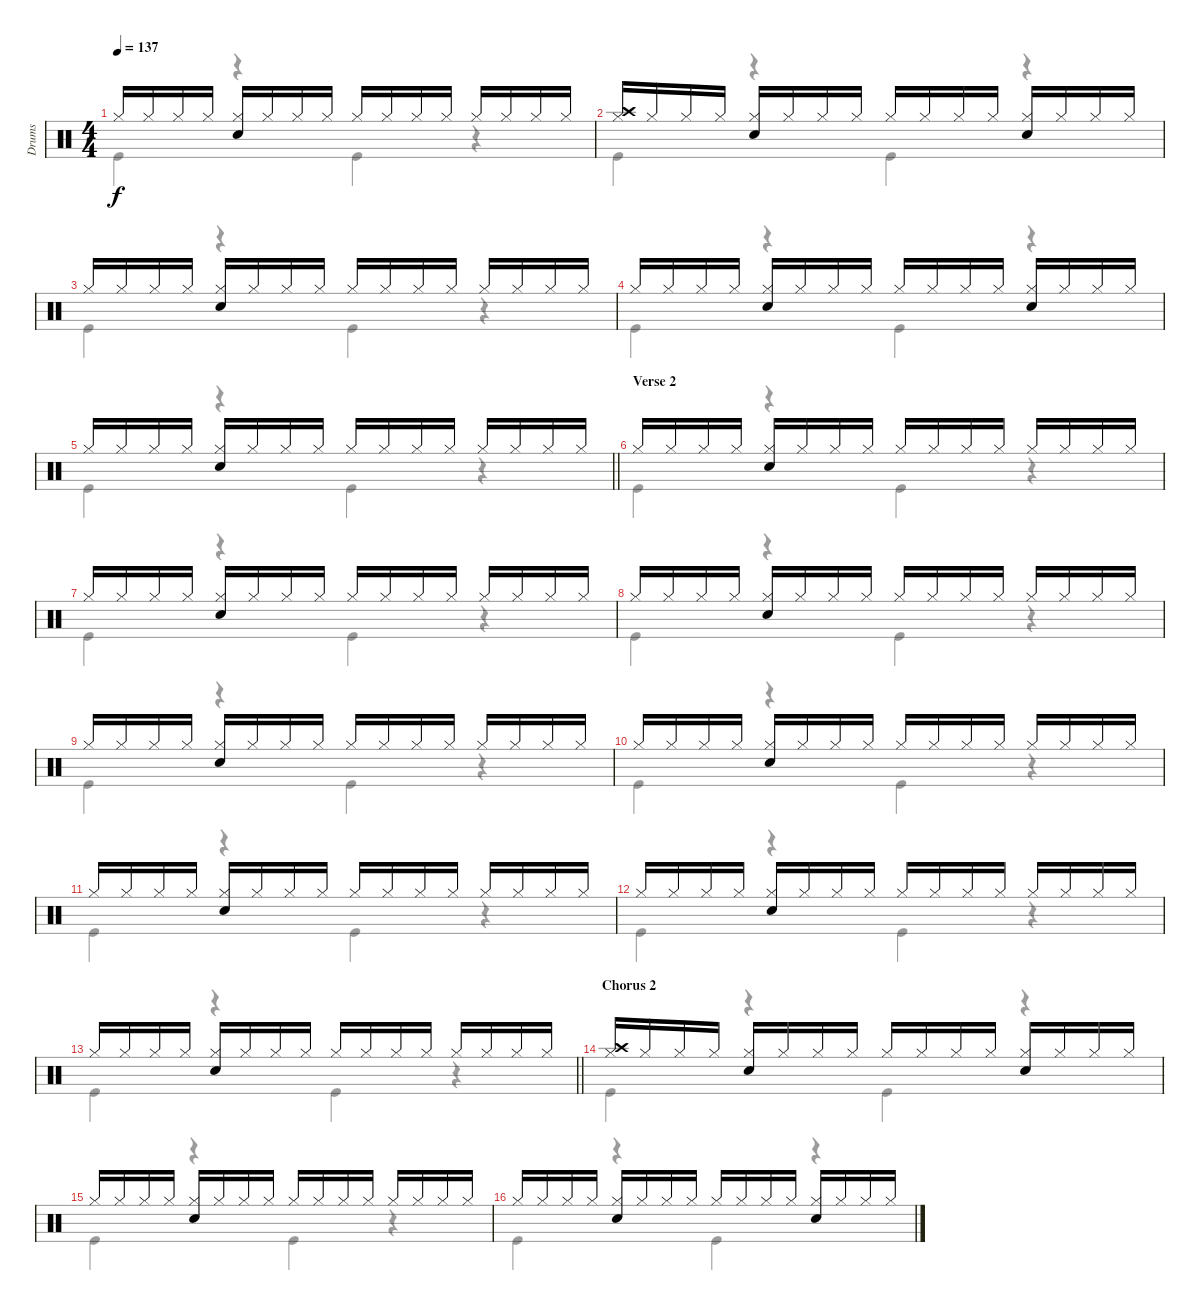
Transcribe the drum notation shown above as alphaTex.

\track ("Drums" "Drums") {instrument percussion}
\staff {score}
\articulation defaults
\voice
\ts (4 4)
\tempo 137
\clef neutral
\ks c "Hi-Hat (closed)".16{dy f} "Hi-Hat (closed)".16 "Hi-Hat (closed)".16 "Hi-Hat (closed)".16
("Hi-Hat (closed)" "Snare (hit) 2").16 "Hi-Hat (closed)".16 "Hi-Hat (closed)".16 "Hi-Hat (closed)".16 "Hi-Hat (closed)".16 "Hi-Hat (closed)".16 "Hi-Hat (closed)".16 "Hi-Hat (closed)".16 "Hi-Hat (closed)".16 "Hi-Hat (closed)".16 "Hi-Hat (closed)".16 "Hi-Hat (closed)".16 |
("Hi-Hat (closed)" "Crash high (hit)").16 "Hi-Hat (closed)".16 "Hi-Hat (closed)".16 "Hi-Hat (closed)".16 ("Hi-Hat (closed)" "Snare (hit) 2").16 "Hi-Hat (closed)".16 "Hi-Hat (closed)".16 "Hi-Hat (closed)".16 "Hi-Hat (closed)".16 "Hi-Hat (closed)".16 "Hi-Hat (closed)".16 "Hi-Hat (closed)".16 ("Hi-Hat (closed)" "Hand Clap (hit)").16 "Hi-Hat (closed)".16 "Hi-Hat (closed)".16 "Hi-Hat (closed)".16 |
"Hi-Hat (closed)".16 "Hi-Hat (closed)".16 "Hi-Hat (closed)".16 "Hi-Hat (closed)".16 ("Hi-Hat (closed)" "Snare (hit) 2").16 "Hi-Hat (closed)".16 "Hi-Hat (closed)".16 "Hi-Hat (closed)".16 "Hi-Hat (closed)".16 "Hi-Hat (closed)".16 "Hi-Hat (closed)".16 "Hi-Hat (closed)".16 "Hi-Hat (closed)".16 "Hi-Hat (closed)".16 "Hi-Hat (closed)".16 "Hi-Hat (closed)".16 |
"Hi-Hat (closed)".16 "Hi-Hat (closed)".16 "Hi-Hat (closed)".16 "Hi-Hat (closed)".16 ("Hi-Hat (closed)" "Snare (hit) 2").16 "Hi-Hat (closed)".16 "Hi-Hat (closed)".16 "Hi-Hat (closed)".16 "Hi-Hat (closed)".16 "Hi-Hat (closed)".16 "Hi-Hat (closed)".16 "Hi-Hat (closed)".16 ("Hi-Hat (closed)" "Hand Clap (hit)").16 "Hi-Hat (closed)".16 "Hi-Hat (closed)".16 "Hi-Hat (closed)".16 |
\barLineRight lightlight "Hi-Hat (closed)".16 "Hi-Hat (closed)".16 "Hi-Hat (closed)".16 "Hi-Hat (closed)".16
("Hi-Hat (closed)" "Snare (hit) 2").16 "Hi-Hat (closed)".16 "Hi-Hat (closed)".16 "Hi-Hat (closed)".16 "Hi-Hat (closed)".16 "Hi-Hat (closed)".16 "Hi-Hat (closed)".16 "Hi-Hat (closed)".16 "Hi-Hat (closed)".16 "Hi-Hat (closed)".16 "Hi-Hat (closed)".16 "Hi-Hat (closed)".16 |
\section ("" "Verse 2")
"Hi-Hat (closed)".16 "Hi-Hat (closed)".16 "Hi-Hat (closed)".16 "Hi-Hat (closed)".16 ("Hi-Hat (closed)" "Snare (hit) 2").16 "Hi-Hat (closed)".16 "Hi-Hat (closed)".16 "Hi-Hat (closed)".16 "Hi-Hat (closed)".16 "Hi-Hat (closed)".16 "Hi-Hat (closed)".16 "Hi-Hat (closed)".16 "Hi-Hat (closed)".16 "Hi-Hat (closed)".16 "Hi-Hat (closed)".16 "Hi-Hat (closed)".16 |
"Hi-Hat (closed)".16 "Hi-Hat (closed)".16 "Hi-Hat (closed)".16 "Hi-Hat (closed)".16 ("Hi-Hat (closed)" "Snare (hit) 2").16 "Hi-Hat (closed)".16 "Hi-Hat (closed)".16 "Hi-Hat (closed)".16 "Hi-Hat (closed)".16 "Hi-Hat (closed)".16 "Hi-Hat (closed)".16 "Hi-Hat (closed)".16 "Hi-Hat (closed)".16 "Hi-Hat (closed)".16 "Hi-Hat (closed)".16 "Hi-Hat (closed)".16 |
"Hi-Hat (closed)".16 "Hi-Hat (closed)".16 "Hi-Hat (closed)".16 "Hi-Hat (closed)".16 ("Hi-Hat (closed)" "Snare (hit) 2").16 "Hi-Hat (closed)".16 "Hi-Hat (closed)".16 "Hi-Hat (closed)".16 "Hi-Hat (closed)".16 "Hi-Hat (closed)".16 "Hi-Hat (closed)".16 "Hi-Hat (closed)".16 "Hi-Hat (closed)".16 "Hi-Hat (closed)".16 "Hi-Hat (closed)".16 "Hi-Hat (closed)".16 |
"Hi-Hat (closed)".16 "Hi-Hat (closed)".16 "Hi-Hat (closed)".16 "Hi-Hat (closed)".16 ("Hi-Hat (closed)" "Snare (hit) 2").16 "Hi-Hat (closed)".16 "Hi-Hat (closed)".16 "Hi-Hat (closed)".16 "Hi-Hat (closed)".16 "Hi-Hat (closed)".16 "Hi-Hat (closed)".16 "Hi-Hat (closed)".16 "Hi-Hat (closed)".16 "Hi-Hat (closed)".16 "Hi-Hat (closed)".16 "Hi-Hat (closed)".16 |
"Hi-Hat (closed)".16 "Hi-Hat (closed)".16 "Hi-Hat (closed)".16 "Hi-Hat (closed)".16 ("Hi-Hat (closed)" "Snare (hit) 2").16 "Hi-Hat (closed)".16 "Hi-Hat (closed)".16 "Hi-Hat (closed)".16 "Hi-Hat (closed)".16 "Hi-Hat (closed)".16 "Hi-Hat (closed)".16 "Hi-Hat (closed)".16 "Hi-Hat (closed)".16 "Hi-Hat (closed)".16 "Hi-Hat (closed)".16 "Hi-Hat (closed)".16 |
"Hi-Hat (closed)".16 "Hi-Hat (closed)".16 "Hi-Hat (closed)".16 "Hi-Hat (closed)".16 ("Hi-Hat (closed)" "Snare (hit) 2").16 "Hi-Hat (closed)".16 "Hi-Hat (closed)".16 "Hi-Hat (closed)".16 "Hi-Hat (closed)".16 "Hi-Hat (closed)".16 "Hi-Hat (closed)".16 "Hi-Hat (closed)".16 "Hi-Hat (closed)".16 "Hi-Hat (closed)".16 "Hi-Hat (closed)".16 "Hi-Hat (closed)".16 |
"Hi-Hat (closed)".16 "Hi-Hat (closed)".16 "Hi-Hat (closed)".16 "Hi-Hat (closed)".16 ("Hi-Hat (closed)" "Snare (hit) 2").16 "Hi-Hat (closed)".16 "Hi-Hat (closed)".16 "Hi-Hat (closed)".16 "Hi-Hat (closed)".16 "Hi-Hat (closed)".16 "Hi-Hat (closed)".16 "Hi-Hat (closed)".16 "Hi-Hat (closed)".16 "Hi-Hat (closed)".16 "Hi-Hat (closed)".16 "Hi-Hat (closed)".16 |
\barLineRight lightlight "Hi-Hat (closed)".16 "Hi-Hat (closed)".16 "Hi-Hat (closed)".16 "Hi-Hat (closed)".16
("Hi-Hat (closed)" "Snare (hit) 2").16 "Hi-Hat (closed)".16 "Hi-Hat (closed)".16 "Hi-Hat (closed)".16 "Hi-Hat (closed)".16 "Hi-Hat (closed)".16 "Hi-Hat (closed)".16 "Hi-Hat (closed)".16 "Hi-Hat (closed)".16 "Hi-Hat (closed)".16 "Hi-Hat (closed)".16 "Hi-Hat (closed)".16 |
\section ("" "Chorus 2")
("Hi-Hat (closed)" "Crash high (hit)").16 "Hi-Hat (closed)".16 "Hi-Hat (closed)".16 "Hi-Hat (closed)".16 ("Hi-Hat (closed)" "Snare (hit) 2").16 "Hi-Hat (closed)".16 "Hi-Hat (closed)".16 "Hi-Hat (closed)".16 "Hi-Hat (closed)".16 "Hi-Hat (closed)".16 "Hi-Hat (closed)".16 "Hi-Hat (closed)".16 ("Hi-Hat (closed)" "Hand Clap (hit)").16 "Hi-Hat (closed)".16 "Hi-Hat (closed)".16 "Hi-Hat (closed)".16 |
"Hi-Hat (closed)".16 "Hi-Hat (closed)".16 "Hi-Hat (closed)".16 "Hi-Hat (closed)".16 ("Hi-Hat (closed)" "Snare (hit) 2").16 "Hi-Hat (closed)".16 "Hi-Hat (closed)".16 "Hi-Hat (closed)".16 "Hi-Hat (closed)".16 "Hi-Hat (closed)".16 "Hi-Hat (closed)".16 "Hi-Hat (closed)".16 "Hi-Hat (closed)".16 "Hi-Hat (closed)".16 "Hi-Hat (closed)".16 "Hi-Hat (closed)".16 |
"Hi-Hat (closed)".16 "Hi-Hat (closed)".16 "Hi-Hat (closed)".16 "Hi-Hat (closed)".16 ("Hi-Hat (closed)" "Snare (hit) 2").16 "Hi-Hat (closed)".16 "Hi-Hat (closed)".16 "Hi-Hat (closed)".16 "Hi-Hat (closed)".16 "Hi-Hat (closed)".16 "Hi-Hat (closed)".16 "Hi-Hat (closed)".16 ("Hi-Hat (closed)" "Hand Clap (hit)").16 "Hi-Hat (closed)".16 "Hi-Hat (closed)".16 "Hi-Hat (closed)".16
\voice
\clef neutral
\ottava regular
\simile none
\ks c "Kick (hit)".4{dy f}
r.4 "Kick (hit)".4 r.4 |
"Kick (hit)".4 r.4 "Kick (hit)".4 r.4 |
"Kick (hit)".4 r.4 "Kick (hit)".4 r.4 |
"Kick (hit)".4 r.4 "Kick (hit)".4 r.4 |
\barLineRight lightlight "Kick (hit)".4
r.4 "Kick (hit)".4 r.4 |
"Kick (hit)".4 r.4 "Kick (hit)".4 r.4 |
"Kick (hit)".4 r.4 "Kick (hit)".4 r.4 |
"Kick (hit)".4 r.4 "Kick (hit)".4 r.4 |
"Kick (hit)".4 r.4 "Kick (hit)".4 r.4 |
"Kick (hit)".4 r.4 "Kick (hit)".4 r.4 |
"Kick (hit)".4 r.4 "Kick (hit)".4 r.4 |
"Kick (hit)".4 r.4 "Kick (hit)".4 r.4 |
\barLineRight lightlight "Kick (hit)".4
r.4 "Kick (hit)".4 r.4 |
"Kick (hit)".4 r.4 "Kick (hit)".4 r.4 |
"Kick (hit)".4 r.4 "Kick (hit)".4 r.4 |
"Kick (hit)".4 r.4 "Kick (hit)".4 r.4
